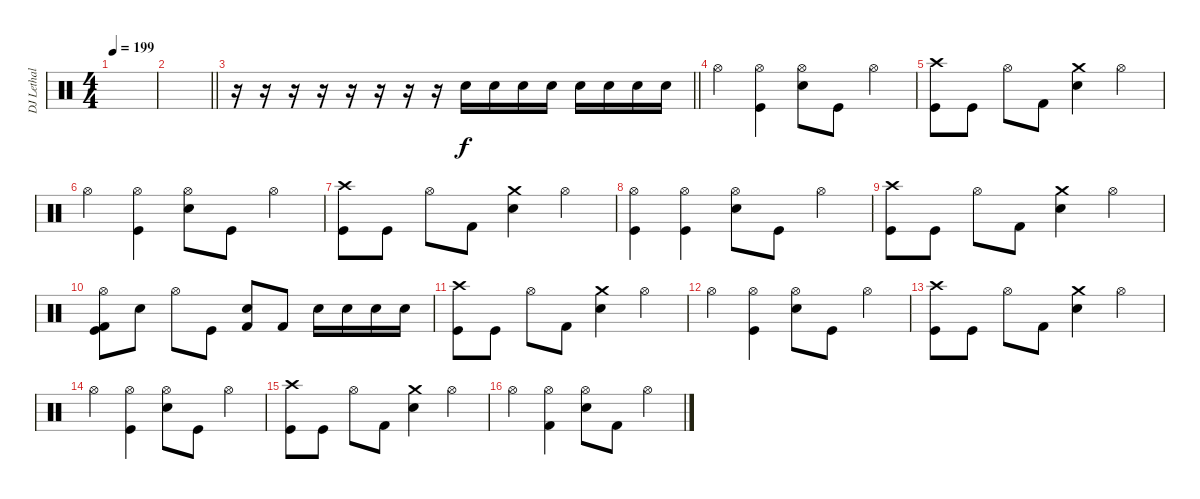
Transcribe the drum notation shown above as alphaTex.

\track ("DJ Lethal + John" "DJ Lethal ") {instrument percussion}
\staff {score}
\articulation defaults
\ts (4 4)
\tempo 199
\clef neutral
\ks c
|
\barLineRight lightlight
|
\barLineRight lightlight
r.16 r.16 r.16 r.16 r.16 r.16 r.16 r.16 "Electric Snare (hit)".16 "Electric Snare (hit)".16 "Electric Snare (hit)".16 "Electric Snare (hit)".16 "Electric Snare (hit)".16 "Electric Snare (hit)".16 "Electric Snare (hit)".16 "Electric Snare (hit)".16 |
"Hi-Hat (open)".4 ("Hi-Hat (open)" "Kick (hit)").4 ("Hi-Hat (open)" "Electric Snare (hit)").8 "Kick (hit)".8 "Hi-Hat (open)".4 |
("Crash high (hit)" "Kick (hit)").8 "Kick (hit)".8 "Hi-Hat (open)".8 "Kick (hit) 2".8 ("Crash medium (hit)" "Electric Snare (hit)").4 "Hi-Hat (open)".4 |
"Hi-Hat (open)".4 ("Hi-Hat (open)" "Kick (hit)").4 ("Hi-Hat (open)" "Electric Snare (hit)").8 "Kick (hit)".8 "Hi-Hat (open)".4 |
("Crash high (hit)" "Kick (hit)").8 "Kick (hit)".8 "Hi-Hat (open)".8 "Kick (hit) 2".8 ("Crash medium (hit)" "Electric Snare (hit)").4 "Hi-Hat (open)".4 |
("Hi-Hat (open)" "Kick (hit)").4 ("Hi-Hat (open)" "Kick (hit)").4 ("Hi-Hat (open)" "Electric Snare (hit)").8 "Kick (hit)".8 "Hi-Hat (open)".4 |
("Crash high (hit)" "Kick (hit)").8 "Kick (hit)".8 "Hi-Hat (open)".8 "Kick (hit) 2".8 ("Crash medium (hit)" "Electric Snare (hit)").4 "Hi-Hat (open)".4 |
("Hi-Hat (open)" "Kick (hit)" "Kick (hit) 2").8 "Electric Snare (hit)".8 "Hi-Hat (open)".8 "Kick (hit)".8 ("Kick (hit) 2" "Electric Snare (hit)").8 "Kick (hit) 2".8 "Electric Snare (hit)".16 "Electric Snare (hit)".16 "Electric Snare (hit)".16 "Electric Snare (hit)".16 |
("Crash high (hit)" "Kick (hit)").8 "Kick (hit)".8 "Hi-Hat (open)".8 "Kick (hit) 2".8 ("Crash medium (hit)" "Electric Snare (hit)").4 "Hi-Hat (open)".4 |
"Hi-Hat (open)".4 ("Hi-Hat (open)" "Kick (hit)").4 ("Hi-Hat (open)" "Electric Snare (hit)").8 "Kick (hit)".8 "Hi-Hat (open)".4 |
("Crash high (hit)" "Kick (hit)").8 "Kick (hit)".8 "Hi-Hat (open)".8 "Kick (hit) 2".8 ("Crash medium (hit)" "Electric Snare (hit)").4 "Hi-Hat (open)".4 |
"Hi-Hat (open)".4 ("Hi-Hat (open)" "Kick (hit)").4 ("Hi-Hat (open)" "Electric Snare (hit)").8 "Kick (hit)".8 "Hi-Hat (open)".4 |
("Crash high (hit)" "Kick (hit)").8 "Kick (hit)".8 "Hi-Hat (open)".8 "Kick (hit) 2".8 ("Crash medium (hit)" "Electric Snare (hit)").4 "Hi-Hat (open)".4 |
"Hi-Hat (open)".4 ("Hi-Hat (open)" "Kick (hit) 2").4 ("Hi-Hat (open)" "Electric Snare (hit)").8 "Kick (hit) 2".8 "Hi-Hat (open)".4
